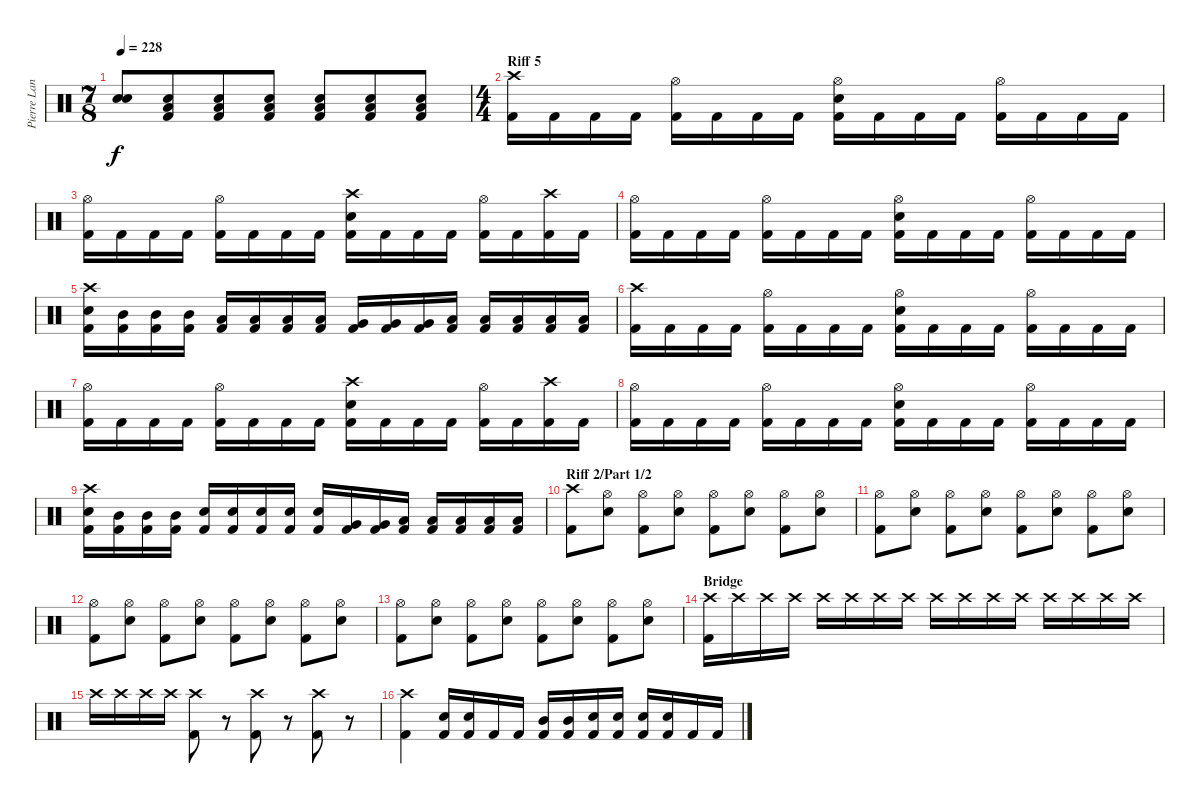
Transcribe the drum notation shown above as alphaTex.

\track ("Pierre Langlois (Drums)" "Pierre Lan") {instrument percussion}
\staff {score}
\articulation defaults
\ts (7 8)
\tempo 228
\clef neutral
\ks c
("Snare (hit)"{t} "Snare (hit)"{t}).8{dy f} ("Low Floor Tom (hit)" "Snare (hit) 2" "Kick (hit) 2").8 ("Low Floor Tom (hit)" "Snare (hit) 2" "Kick (hit) 2").8 ("Low Floor Tom (hit)" "Snare (hit) 2" "Kick (hit) 2").8 ("Low Floor Tom (hit)" "Snare (hit) 2" "Kick (hit) 2").8 ("Low Floor Tom (hit)" "Snare (hit) 2" "Kick (hit) 2").8 ("Low Floor Tom (hit)" "Snare (hit) 2" "Kick (hit) 2").8 |
\ts (4 4)
\section ("" "Riff 5")
("Crash high (hit)" "Kick (hit) 2").16 "Kick (hit) 2".16 "Kick (hit) 2".16 "Kick (hit) 2".16 ("Hi-Hat (open)" "Kick (hit) 2").16 "Kick (hit) 2".16 "Kick (hit) 2".16 "Kick (hit) 2".16 ("Hi-Hat (open)" "Snare (hit) 2" "Kick (hit) 2").16 "Kick (hit) 2".16 "Kick (hit) 2".16 "Kick (hit) 2".16 ("Hi-Hat (open)" "Kick (hit) 2").16 "Kick (hit) 2".16 "Kick (hit) 2".16 "Kick (hit) 2".16 |
("Hi-Hat (open)" "Kick (hit) 2").16 "Kick (hit) 2".16 "Kick (hit) 2".16 "Kick (hit) 2".16 ("Hi-Hat (open)" "Kick (hit) 2").16 "Kick (hit) 2".16 "Kick (hit) 2".16 "Kick (hit) 2".16 ("Crash high (hit)" "Snare (hit) 2" "Kick (hit) 2").16 "Kick (hit) 2".16 "Kick (hit) 2".16 "Kick (hit) 2".16 ("Hi-Hat (open)" "Kick (hit) 2").16 "Kick (hit) 2".16 ("Crash high (hit)" "Kick (hit) 2").16 "Kick (hit) 2".16 |
("Hi-Hat (open)" "Kick (hit) 2").16 "Kick (hit) 2".16 "Kick (hit) 2".16 "Kick (hit) 2".16 ("Hi-Hat (open)" "Kick (hit) 2").16 "Kick (hit) 2".16 "Kick (hit) 2".16 "Kick (hit) 2".16 ("Hi-Hat (open)" "Snare (hit) 2" "Kick (hit) 2").16 "Kick (hit) 2".16 "Kick (hit) 2".16 "Kick (hit) 2".16 ("Hi-Hat (open)" "Kick (hit) 2").16 "Kick (hit) 2".16 "Kick (hit) 2".16 "Kick (hit) 2".16 |
("Crash high (hit)" "Snare (hit) 2" "Kick (hit) 2").16 ("Mid Tom (hit)" "Kick (hit) 2").16 ("Mid Tom (hit)" "Kick (hit) 2").16 ("Mid Tom (hit)" "Kick (hit) 2").16 ("Low Tom (hit)" "Kick (hit) 2").16 ("Low Tom (hit)" "Kick (hit) 2").16 ("Low Tom (hit)" "Kick (hit) 2").16 ("Low Tom (hit)" "Kick (hit) 2").16 ("Very Low Tom (hit)" "Kick (hit) 2").16 ("Very Low Tom (hit)" "Kick (hit) 2").16 ("Very Low Tom (hit)" "Kick (hit) 2").16 ("Low Floor Tom (hit)" "Kick (hit) 2").16 ("Low Floor Tom (hit)" "Kick (hit) 2").16 ("Low Floor Tom (hit)" "Kick (hit) 2").16 ("Low Floor Tom (hit)" "Kick (hit) 2").16 ("Low Floor Tom (hit)" "Kick (hit) 2").16 |
("Crash high (hit)" "Kick (hit) 2").16 "Kick (hit) 2".16 "Kick (hit) 2".16 "Kick (hit) 2".16 ("Hi-Hat (open)" "Kick (hit) 2").16 "Kick (hit) 2".16 "Kick (hit) 2".16 "Kick (hit) 2".16 ("Hi-Hat (open)" "Snare (hit) 2" "Kick (hit) 2").16 "Kick (hit) 2".16 "Kick (hit) 2".16 "Kick (hit) 2".16 ("Hi-Hat (open)" "Kick (hit) 2").16 "Kick (hit) 2".16 "Kick (hit) 2".16 "Kick (hit) 2".16 |
("Hi-Hat (open)" "Kick (hit) 2").16 "Kick (hit) 2".16 "Kick (hit) 2".16 "Kick (hit) 2".16 ("Hi-Hat (open)" "Kick (hit) 2").16 "Kick (hit) 2".16 "Kick (hit) 2".16 "Kick (hit) 2".16 ("Crash high (hit)" "Snare (hit) 2" "Kick (hit) 2").16 "Kick (hit) 2".16 "Kick (hit) 2".16 "Kick (hit) 2".16 ("Hi-Hat (open)" "Kick (hit) 2").16 "Kick (hit) 2".16 ("Crash high (hit)" "Kick (hit) 2").16 "Kick (hit) 2".16 |
("Hi-Hat (open)" "Kick (hit) 2").16 "Kick (hit) 2".16 "Kick (hit) 2".16 "Kick (hit) 2".16 ("Hi-Hat (open)" "Kick (hit) 2").16 "Kick (hit) 2".16 "Kick (hit) 2".16 "Kick (hit) 2".16 ("Hi-Hat (open)" "Snare (hit) 2" "Kick (hit) 2").16 "Kick (hit) 2".16 "Kick (hit) 2".16 "Kick (hit) 2".16 ("Hi-Hat (open)" "Kick (hit) 2").16 "Kick (hit) 2".16 "Kick (hit) 2".16 "Kick (hit) 2".16 |
("Crash high (hit)" "Snare (hit) 2" "Kick (hit) 2").16 ("Mid Tom (hit)" "Kick (hit) 2").16 ("Mid Tom (hit)" "Kick (hit) 2").16 ("Mid Tom (hit)" "Kick (hit) 2").16 ("Snare (hit) 2" "Kick (hit) 2").16 ("Snare (hit) 2" "Kick (hit) 2").16 ("Snare (hit) 2" "Kick (hit) 2").16 ("Snare (hit) 2" "Kick (hit) 2").16 ("Snare (hit) 2" "Kick (hit) 2").16 ("Very Low Tom (hit)" "Kick (hit) 2").16 ("Very Low Tom (hit)" "Kick (hit) 2").16 ("Low Floor Tom (hit)" "Kick (hit) 2").16 ("Low Floor Tom (hit)" "Kick (hit) 2").16 ("Low Floor Tom (hit)" "Kick (hit) 2").16 ("Low Floor Tom (hit)" "Kick (hit) 2").16 ("Low Floor Tom (hit)" "Kick (hit) 2").16 |
\section ("" "Riff 2/Part 1/2")
("Crash high (hit)" "Kick (hit) 2").8 ("Hi-Hat (open)" "Snare (hit) 2").8 ("Hi-Hat (open)" "Kick (hit) 2").8 ("Hi-Hat (open)" "Snare (hit) 2").8 ("Hi-Hat (open)" "Kick (hit) 2").8 ("Hi-Hat (open)" "Snare (hit) 2").8 ("Hi-Hat (open)" "Kick (hit) 2").8 ("Hi-Hat (open)" "Snare (hit) 2").8 |
("Hi-Hat (open)" "Kick (hit) 2").8 ("Hi-Hat (open)" "Snare (hit) 2").8 ("Hi-Hat (open)" "Kick (hit) 2").8 ("Hi-Hat (open)" "Snare (hit) 2").8 ("Hi-Hat (open)" "Kick (hit) 2").8 ("Hi-Hat (open)" "Snare (hit) 2").8 ("Hi-Hat (open)" "Kick (hit) 2").8 ("Hi-Hat (open)" "Snare (hit) 2").8 |
("Hi-Hat (open)" "Kick (hit) 2").8 ("Hi-Hat (open)" "Snare (hit) 2").8 ("Hi-Hat (open)" "Kick (hit) 2").8 ("Hi-Hat (open)" "Snare (hit) 2").8 ("Hi-Hat (open)" "Kick (hit) 2").8 ("Hi-Hat (open)" "Snare (hit) 2").8 ("Hi-Hat (open)" "Kick (hit) 2").8 ("Hi-Hat (open)" "Snare (hit) 2").8 |
("Hi-Hat (open)" "Kick (hit) 2").8 ("Hi-Hat (open)" "Snare (hit) 2").8 ("Hi-Hat (open)" "Kick (hit) 2").8 ("Hi-Hat (open)" "Snare (hit) 2").8 ("Hi-Hat (open)" "Kick (hit) 2").8 ("Hi-Hat (open)" "Snare (hit) 2").8 ("Hi-Hat (open)" "Kick (hit) 2").8 ("Hi-Hat (open)" "Snare (hit) 2").8 |
\section ("" "Bridge")
("Crash high (hit)" "Kick (hit) 2").16 "Crash high (hit)".16 "Crash high (hit)".16 "Crash high (hit)".16 "Crash high (hit)".16 "Crash high (hit)".16 "Crash high (hit)".16 "Crash high (hit)".16 "Crash high (hit)".16 "Crash high (hit)".16 "Crash high (hit)".16 "Crash high (hit)".16 "Crash high (hit)".16 "Crash high (hit)".16 "Crash high (hit)".16 "Crash high (hit)".16 |
"Crash high (hit)".16 "Crash high (hit)".16 "Crash high (hit)".16 "Crash high (hit)".16 ("Crash high (hit)" "Kick (hit) 2").8{volume 16} r.8 ("Crash high (hit)" "Kick (hit) 2").8{volume 16} r.8 ("Crash high (hit)" "Kick (hit) 2").8{volume 16} r.8 |
("Crash high (hit)" "Kick (hit) 2").4{volume 16} ("Snare (hit) 2" "Kick (hit) 2").16 ("Snare (hit) 2" "Kick (hit) 2").16 "Kick (hit) 2".16 "Kick (hit) 2".16 ("Mid Tom (hit)" "Kick (hit) 2").16 ("Mid Tom (hit)" "Kick (hit) 2").16 ("Snare (hit) 2" "Kick (hit) 2").16 ("Snare (hit) 2" "Kick (hit) 2").16 ("Snare (hit) 2" "Kick (hit) 2").16 ("Snare (hit) 2" "Kick (hit) 2").16 "Kick (hit) 2".16 "Kick (hit) 2".16
